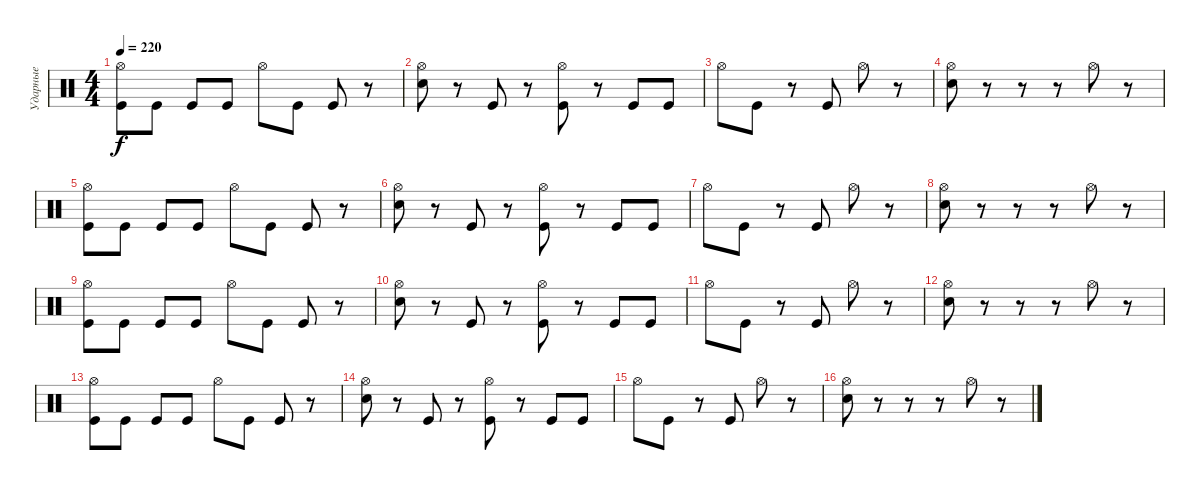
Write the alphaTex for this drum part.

\track ("Ударные" "Ударные") {instrument percussion}
\staff {score}
\articulation defaults
\ts (4 4)
\tempo 220
\clef neutral
\ks c
("Hi-Hat (open)" "Kick (hit)").8{dy f} "Kick (hit)".8 "Kick (hit)".8 "Kick (hit)".8 "Hi-Hat (open)".8 "Kick (hit)".8 "Kick (hit)".8 r.8 |
("Hi-Hat (open)" "Electric Snare (hit)").8 r.8 "Kick (hit)".8 r.8 ("Hi-Hat (open)" "Kick (hit)").8 r.8 "Kick (hit)".8 "Kick (hit)".8 |
"Hi-Hat (open)".8 "Kick (hit)".8 r.8 "Kick (hit)".8 "Hi-Hat (open)".8 r.8 |
("Hi-Hat (open)" "Electric Snare (hit)").8 r.8 r.8 r.8 "Hi-Hat (open)".8 r.8 |
("Hi-Hat (open)" "Kick (hit)").8 "Kick (hit)".8 "Kick (hit)".8 "Kick (hit)".8 "Hi-Hat (open)".8 "Kick (hit)".8 "Kick (hit)".8 r.8 |
("Hi-Hat (open)" "Electric Snare (hit)").8 r.8 "Kick (hit)".8 r.8 ("Hi-Hat (open)" "Kick (hit)").8 r.8 "Kick (hit)".8 "Kick (hit)".8 |
"Hi-Hat (open)".8 "Kick (hit)".8 r.8 "Kick (hit)".8 "Hi-Hat (open)".8 r.8 |
("Hi-Hat (open)" "Electric Snare (hit)").8 r.8 r.8 r.8 "Hi-Hat (open)".8 r.8 |
("Hi-Hat (open)" "Kick (hit)").8 "Kick (hit)".8 "Kick (hit)".8 "Kick (hit)".8 "Hi-Hat (open)".8 "Kick (hit)".8 "Kick (hit)".8 r.8 |
("Hi-Hat (open)" "Electric Snare (hit)").8 r.8 "Kick (hit)".8 r.8 ("Hi-Hat (open)" "Kick (hit)").8 r.8 "Kick (hit)".8 "Kick (hit)".8 |
"Hi-Hat (open)".8 "Kick (hit)".8 r.8 "Kick (hit)".8 "Hi-Hat (open)".8 r.8 |
("Hi-Hat (open)" "Electric Snare (hit)").8 r.8 r.8 r.8 "Hi-Hat (open)".8 r.8 |
("Hi-Hat (open)" "Kick (hit)").8 "Kick (hit)".8 "Kick (hit)".8 "Kick (hit)".8 "Hi-Hat (open)".8 "Kick (hit)".8 "Kick (hit)".8 r.8 |
("Hi-Hat (open)" "Electric Snare (hit)").8 r.8 "Kick (hit)".8 r.8 ("Hi-Hat (open)" "Kick (hit)").8 r.8 "Kick (hit)".8 "Kick (hit)".8 |
"Hi-Hat (open)".8 "Kick (hit)".8 r.8 "Kick (hit)".8 "Hi-Hat (open)".8 r.8 |
("Hi-Hat (open)" "Electric Snare (hit)").8 r.8 r.8 r.8 "Hi-Hat (open)".8 r.8
